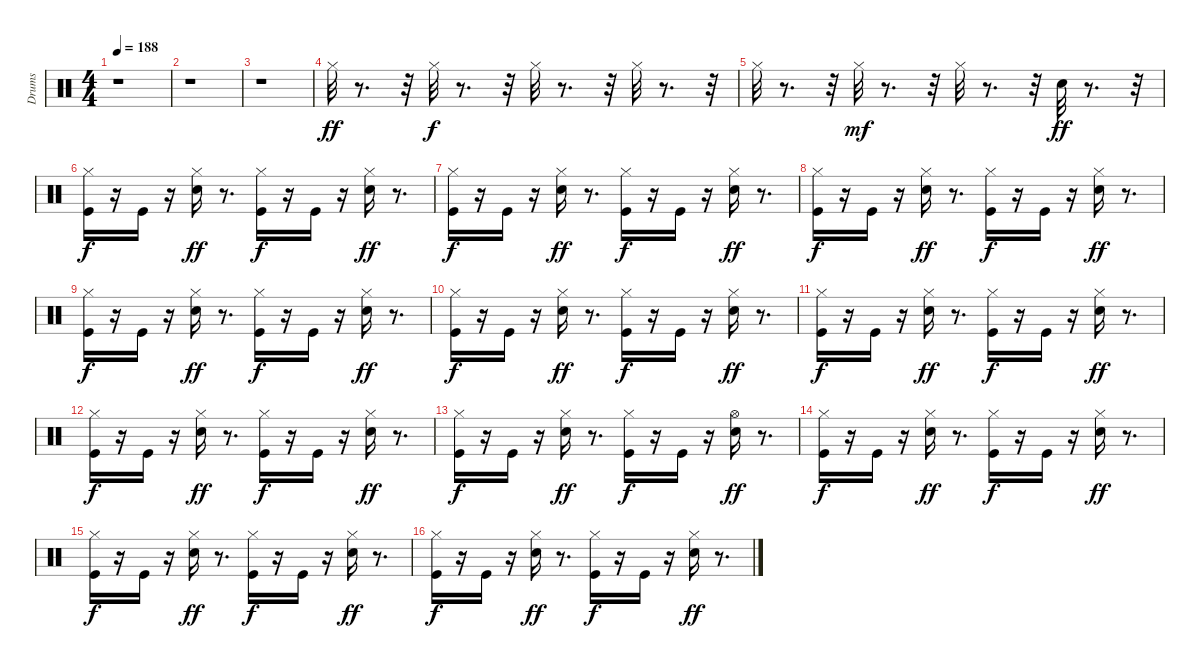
\track ("Drums" "Drums") {instrument percussion}
\staff {score}
\articulation defaults
\ts (4 4)
\tempo 188
\clef neutral
\ks c
r.1{dy ff} |
r.1 |
r.1 |
"Hi-Hat (closed)".32 r.8{d} r.32 "Hi-Hat (closed)".32{dy f} r.8{d} r.32 "Hi-Hat (closed)".32 r.8{d} r.32 "Hi-Hat (closed)".32 r.8{d} r.32 |
"Hi-Hat (closed)".32 r.8{d} r.32 "Hi-Hat (closed)".32{dy mf} r.8{d} r.32 "Hi-Hat (closed)".32 r.8{d} r.32 "Snare (hit) 2".32{dy ff} r.8{d} r.32 |
("Hi-Hat (closed)" "Kick (hit)").16{dy f} r.16 "Kick (hit)".16 r.16 ("Snare (hit) 2" "Hi-Hat (closed)").16{dy ff} r.8{d} ("Hi-Hat (closed)" "Kick (hit)").16{dy f} r.16 "Kick (hit)".16 r.16 ("Snare (hit) 2" "Hi-Hat (closed)").16{dy ff} r.8{d} |
("Hi-Hat (closed)" "Kick (hit)").16{dy f} r.16 "Kick (hit)".16 r.16 ("Snare (hit) 2" "Hi-Hat (closed)").16{dy ff} r.8{d} ("Hi-Hat (closed)" "Kick (hit)").16{dy f} r.16 "Kick (hit)".16 r.16 ("Snare (hit) 2" "Hi-Hat (closed)").16{dy ff} r.8{d} |
("Hi-Hat (closed)" "Kick (hit)").16{dy f} r.16 "Kick (hit)".16 r.16 ("Snare (hit) 2" "Hi-Hat (closed)").16{dy ff} r.8{d} ("Hi-Hat (closed)" "Kick (hit)").16{dy f} r.16 "Kick (hit)".16 r.16 ("Snare (hit) 2" "Hi-Hat (closed)").16{dy ff} r.8{d} |
("Hi-Hat (closed)" "Kick (hit)").16{dy f} r.16 "Kick (hit)".16 r.16 ("Snare (hit) 2" "Hi-Hat (closed)").16{dy ff} r.8{d} ("Hi-Hat (closed)" "Kick (hit)").16{dy f} r.16 "Kick (hit)".16 r.16 ("Snare (hit) 2" "Hi-Hat (closed)").16{dy ff} r.8{d} |
("Hi-Hat (closed)" "Kick (hit)").16{dy f} r.16 "Kick (hit)".16 r.16 ("Snare (hit) 2" "Hi-Hat (closed)").16{dy ff} r.8{d} ("Hi-Hat (closed)" "Kick (hit)").16{dy f} r.16 "Kick (hit)".16 r.16 ("Snare (hit) 2" "Hi-Hat (closed)").16{dy ff} r.8{d} |
("Hi-Hat (closed)" "Kick (hit)").16{dy f} r.16 "Kick (hit)".16 r.16 ("Snare (hit) 2" "Hi-Hat (closed)").16{dy ff} r.8{d} ("Hi-Hat (closed)" "Kick (hit)").16{dy f} r.16 "Kick (hit)".16 r.16 ("Snare (hit) 2" "Hi-Hat (closed)").16{dy ff} r.8{d} |
("Hi-Hat (closed)" "Kick (hit)").16{dy f} r.16 "Kick (hit)".16 r.16 ("Snare (hit) 2" "Hi-Hat (closed)").16{dy ff} r.8{d} ("Hi-Hat (closed)" "Kick (hit)").16{dy f} r.16 "Kick (hit)".16 r.16 ("Snare (hit) 2" "Hi-Hat (closed)").16{dy ff} r.8{d} |
("Hi-Hat (closed)" "Kick (hit)").16{dy f} r.16 "Kick (hit)".16 r.16 ("Snare (hit) 2" "Hi-Hat (closed)").16{dy ff} r.8{d} ("Hi-Hat (closed)" "Kick (hit)").16{dy f} r.16 "Kick (hit)".16 r.16 ("Snare (hit) 2" "Hi-Hat (open)").16{dy ff} r.8{d} |
("Hi-Hat (closed)" "Kick (hit)").16{dy f} r.16 "Kick (hit)".16 r.16 ("Snare (hit) 2" "Hi-Hat (closed)").16{dy ff} r.8{d} ("Hi-Hat (closed)" "Kick (hit)").16{dy f} r.16 "Kick (hit)".16 r.16 ("Snare (hit) 2" "Hi-Hat (closed)").16{dy ff} r.8{d} |
("Hi-Hat (closed)" "Kick (hit)").16{dy f} r.16 "Kick (hit)".16 r.16 ("Snare (hit) 2" "Hi-Hat (closed)").16{dy ff} r.8{d} ("Hi-Hat (closed)" "Kick (hit)").16{dy f} r.16 "Kick (hit)".16 r.16 ("Snare (hit) 2" "Hi-Hat (closed)").16{dy ff} r.8{d} |
("Hi-Hat (closed)" "Kick (hit)").16{dy f} r.16 "Kick (hit)".16 r.16 ("Snare (hit) 2" "Hi-Hat (closed)").16{dy ff} r.8{d} ("Hi-Hat (closed)" "Kick (hit)").16{dy f} r.16 "Kick (hit)".16 r.16 ("Snare (hit) 2" "Hi-Hat (closed)").16{dy ff} r.8{d}
